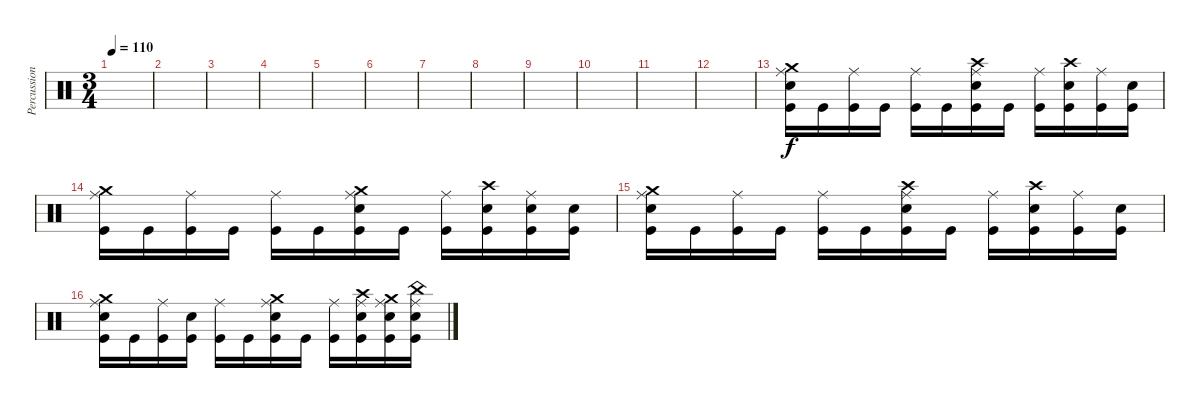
\track ("Percussions" "Percussion") {instrument percussion}
\staff {score}
\articulation defaults
\ts (3 4)
\tempo 110
\clef neutral
\ks c
|
|
|
|
|
|
|
|
|
|
|
|
("Crash medium (hit)" "Ride (middle)" "Snare (hit) 2" "Kick (hit)").16 "Kick (hit)".16 ("Ride (middle)" "Kick (hit)").16 "Kick (hit)".16 ("Ride (middle)" "Kick (hit)").16 "Kick (hit)".16 ("Crash high (hit)" "Ride (middle)" "Snare (hit) 2" "Kick (hit)").16 "Kick (hit)".16 ("Ride (middle)" "Kick (hit)").16 ("Crash high (hit)" "Snare (hit) 2" "Kick (hit)").16 ("Ride (middle)" "Kick (hit)").16 ("Snare (hit) 2" "Kick (hit)").16 |
("Crash medium (hit)" "Ride (middle)" "Kick (hit)").16 "Kick (hit)".16 ("Ride (middle)" "Kick (hit)").16 "Kick (hit)".16 ("Ride (middle)" "Kick (hit)").16 "Kick (hit)".16 ("Crash medium (hit)" "Ride (middle)" "Snare (hit) 2" "Kick (hit)").16 "Kick (hit)".16 ("Ride (middle)" "Kick (hit)").16 ("Crash high (hit)" "Snare (hit) 2" "Kick (hit)").16 ("Ride (middle)" "Snare (hit) 2" "Kick (hit)").16 ("Snare (hit) 2" "Kick (hit)").16 |
("Crash medium (hit)" "Ride (middle)" "Snare (hit) 2" "Kick (hit)").16 "Kick (hit)".16 ("Ride (middle)" "Kick (hit)").16 "Kick (hit)".16 ("Ride (middle)" "Kick (hit)").16 "Kick (hit)".16 ("Crash high (hit)" "Ride (middle)" "Snare (hit) 2" "Kick (hit)").16 "Kick (hit)".16 ("Ride (middle)" "Kick (hit)").16 ("Crash high (hit)" "Snare (hit) 2" "Kick (hit)").16 ("Ride (middle)" "Kick (hit)").16 ("Snare (hit) 2" "Kick (hit)").16 |
("Crash medium (hit)" "Ride (middle)" "Snare (hit) 2" "Kick (hit)").16 "Kick (hit)".16 ("Ride (middle)" "Kick (hit)").16 ("Snare (hit) 2" "Kick (hit)").16 ("Ride (middle)" "Kick (hit)").16 "Kick (hit)".16 ("Crash medium (hit)" "Ride (middle)" "Snare (hit) 2" "Kick (hit)").16 "Kick (hit)".16 ("Ride (middle)" "Kick (hit)").16 ("Crash high (hit)" "Ride (middle)" "Snare (hit) 2" "Kick (hit)").16 ("Crash medium (hit)" "Ride (middle)" "Snare (hit) 2" "Kick (hit)").16 ("China (hit)" "Ride (middle)" "Snare (hit) 2" "Kick (hit)").16
